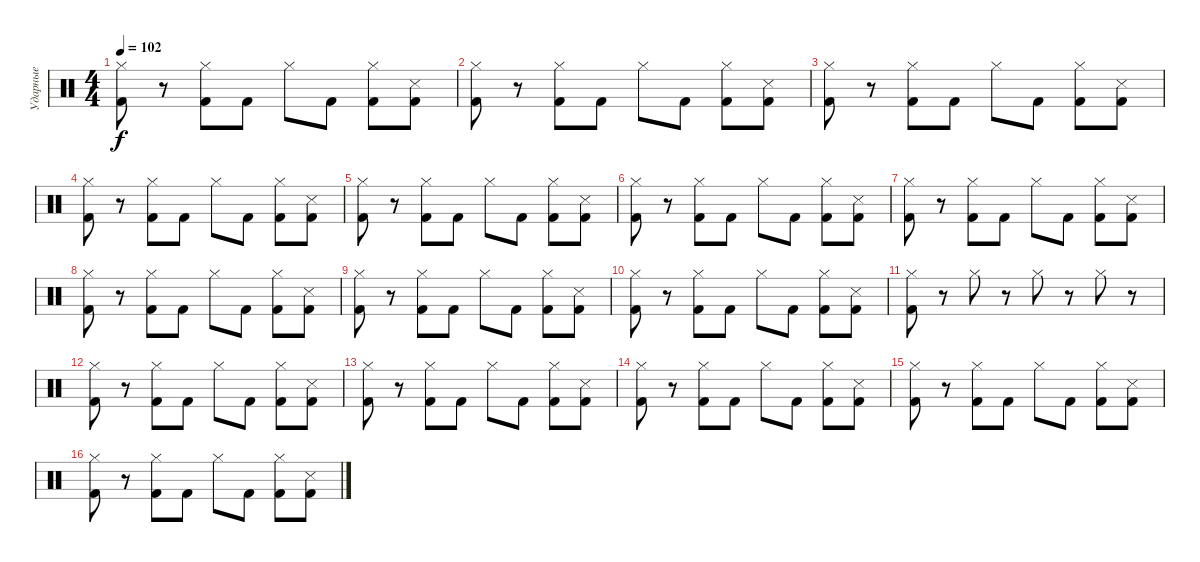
\track ("Ударные" "Ударные") {instrument percussion}
\staff {score}
\articulation defaults
\ts (4 4)
\tempo 102
\clef neutral
\ks c
("Hi-Hat (closed)" "Kick (hit) 2").8{dy f} r.8 ("Hi-Hat (closed)" "Kick (hit) 2").8 "Kick (hit) 2".8 "Hi-Hat (closed)".8 "Kick (hit) 2".8 ("Hi-Hat (closed)" "Kick (hit) 2").8 ("Metronome (hit)" "Kick (hit) 2").8 |
("Hi-Hat (closed)" "Kick (hit) 2").8 r.8 ("Hi-Hat (closed)" "Kick (hit) 2").8 "Kick (hit) 2".8 "Hi-Hat (closed)".8 "Kick (hit) 2".8 ("Hi-Hat (closed)" "Kick (hit) 2").8 ("Metronome (hit)" "Kick (hit) 2").8 |
("Hi-Hat (closed)" "Kick (hit) 2").8 r.8 ("Hi-Hat (closed)" "Kick (hit) 2").8 "Kick (hit) 2".8 "Hi-Hat (closed)".8 "Kick (hit) 2".8 ("Hi-Hat (closed)" "Kick (hit) 2").8 ("Metronome (hit)" "Kick (hit) 2").8 |
("Hi-Hat (closed)" "Kick (hit) 2").8 r.8 ("Hi-Hat (closed)" "Kick (hit) 2").8 "Kick (hit) 2".8 "Hi-Hat (closed)".8 "Kick (hit) 2".8 ("Hi-Hat (closed)" "Kick (hit) 2").8 ("Metronome (hit)" "Kick (hit) 2").8 |
("Hi-Hat (closed)" "Kick (hit) 2").8 r.8 ("Hi-Hat (closed)" "Kick (hit) 2").8 "Kick (hit) 2".8 "Hi-Hat (closed)".8 "Kick (hit) 2".8 ("Hi-Hat (closed)" "Kick (hit) 2").8 ("Metronome (hit)" "Kick (hit) 2").8 |
("Hi-Hat (closed)" "Kick (hit) 2").8 r.8 ("Hi-Hat (closed)" "Kick (hit) 2").8 "Kick (hit) 2".8 "Hi-Hat (closed)".8 "Kick (hit) 2".8 ("Hi-Hat (closed)" "Kick (hit) 2").8 ("Metronome (hit)" "Kick (hit) 2").8 |
("Hi-Hat (closed)" "Kick (hit) 2").8 r.8 ("Hi-Hat (closed)" "Kick (hit) 2").8 "Kick (hit) 2".8 "Hi-Hat (closed)".8 "Kick (hit) 2".8 ("Hi-Hat (closed)" "Kick (hit) 2").8 ("Metronome (hit)" "Kick (hit) 2").8 |
("Hi-Hat (closed)" "Kick (hit) 2").8 r.8 ("Hi-Hat (closed)" "Kick (hit) 2").8 "Kick (hit) 2".8 "Hi-Hat (closed)".8 "Kick (hit) 2".8 ("Hi-Hat (closed)" "Kick (hit) 2").8 ("Metronome (hit)" "Kick (hit) 2").8 |
("Hi-Hat (closed)" "Kick (hit) 2").8 r.8 ("Hi-Hat (closed)" "Kick (hit) 2").8 "Kick (hit) 2".8 "Hi-Hat (closed)".8 "Kick (hit) 2".8 ("Hi-Hat (closed)" "Kick (hit) 2").8 ("Metronome (hit)" "Kick (hit) 2").8 |
("Hi-Hat (closed)" "Kick (hit) 2").8 r.8 ("Hi-Hat (closed)" "Kick (hit) 2").8 "Kick (hit) 2".8 "Hi-Hat (closed)".8 "Kick (hit) 2".8 ("Hi-Hat (closed)" "Kick (hit) 2").8 ("Metronome (hit)" "Kick (hit) 2").8 |
("Hi-Hat (closed)" "Kick (hit) 2").8 r.8 "Hi-Hat (closed)".8 r.8 "Hi-Hat (closed)".8 r.8 "Hi-Hat (closed)".8 r.8 |
("Hi-Hat (closed)" "Kick (hit) 2").8 r.8 ("Hi-Hat (closed)" "Kick (hit) 2").8 "Kick (hit) 2".8 "Hi-Hat (closed)".8 "Kick (hit) 2".8 ("Hi-Hat (closed)" "Kick (hit) 2").8 ("Metronome (hit)" "Kick (hit) 2").8 |
("Hi-Hat (closed)" "Kick (hit) 2").8 r.8 ("Hi-Hat (closed)" "Kick (hit) 2").8 "Kick (hit) 2".8 "Hi-Hat (closed)".8 "Kick (hit) 2".8 ("Hi-Hat (closed)" "Kick (hit) 2").8 ("Metronome (hit)" "Kick (hit) 2").8 |
("Hi-Hat (closed)" "Kick (hit) 2").8 r.8 ("Hi-Hat (closed)" "Kick (hit) 2").8 "Kick (hit) 2".8 "Hi-Hat (closed)".8 "Kick (hit) 2".8 ("Hi-Hat (closed)" "Kick (hit) 2").8 ("Metronome (hit)" "Kick (hit) 2").8 |
("Hi-Hat (closed)" "Kick (hit) 2").8 r.8 ("Hi-Hat (closed)" "Kick (hit) 2").8 "Kick (hit) 2".8 "Hi-Hat (closed)".8 "Kick (hit) 2".8 ("Hi-Hat (closed)" "Kick (hit) 2").8 ("Metronome (hit)" "Kick (hit) 2").8 |
("Hi-Hat (closed)" "Kick (hit) 2").8 r.8 ("Hi-Hat (closed)" "Kick (hit) 2").8 "Kick (hit) 2".8 "Hi-Hat (closed)".8 "Kick (hit) 2".8 ("Hi-Hat (closed)" "Kick (hit) 2").8 ("Metronome (hit)" "Kick (hit) 2").8
